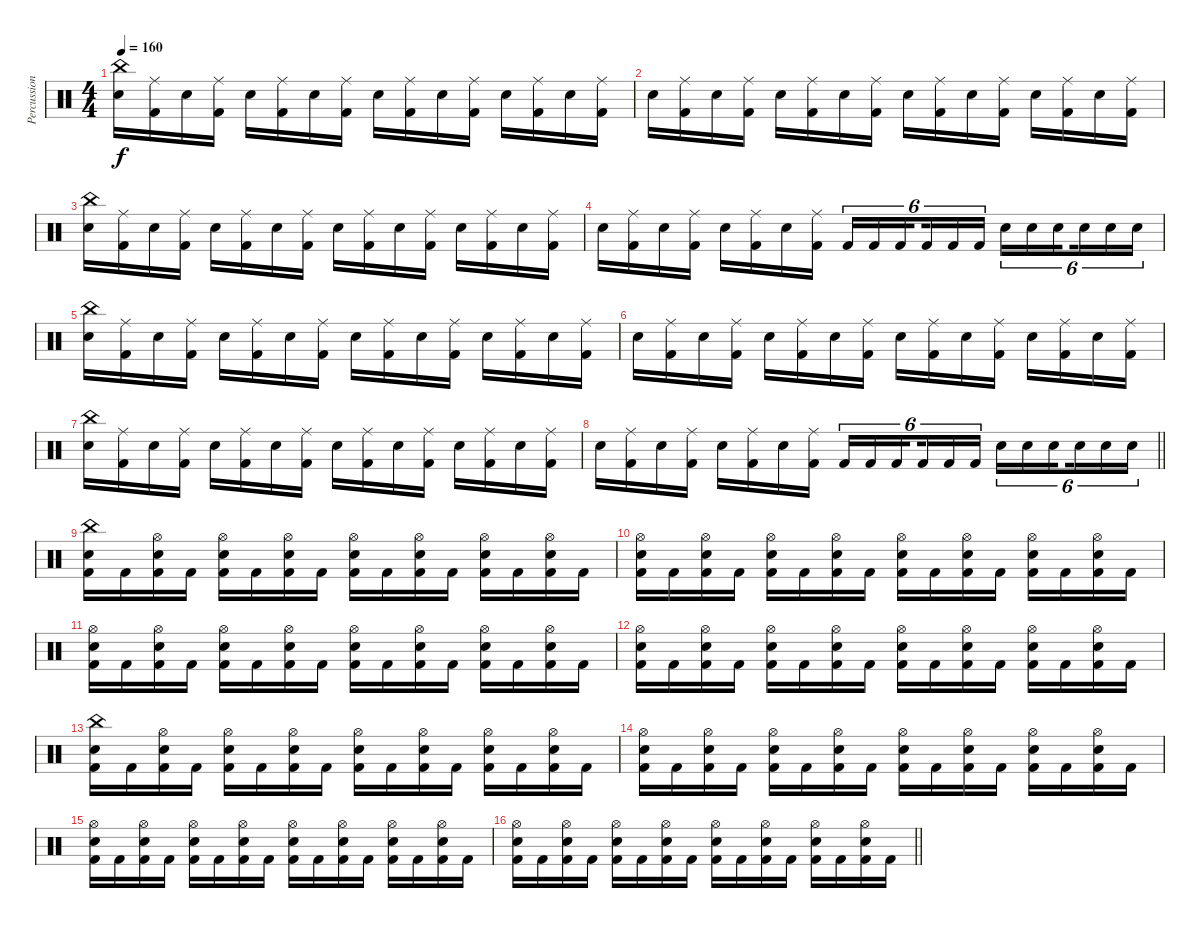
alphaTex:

\track ("Percussions" "Percussion") {instrument percussion}
\staff {score}
\articulation defaults
\ts (4 4)
\tempo 160
\clef neutral
\ks c
("China (hit)" "Electric Snare (hit)").16{dy f} ("Ride (middle)" "Kick (hit) 2").16 "Electric Snare (hit)".16 ("Ride (middle)" "Kick (hit) 2").16 "Electric Snare (hit)".16 ("Ride (middle)" "Kick (hit) 2").16 "Electric Snare (hit)".16 ("Ride (middle)" "Kick (hit) 2").16 "Electric Snare (hit)".16 ("Ride (middle)" "Kick (hit) 2").16 "Electric Snare (hit)".16 ("Ride (middle)" "Kick (hit) 2").16 "Electric Snare (hit)".16 ("Ride (middle)" "Kick (hit) 2").16 "Electric Snare (hit)".16 ("Ride (middle)" "Kick (hit) 2").16 |
"Electric Snare (hit)".16 ("Ride (middle)" "Kick (hit) 2").16 "Electric Snare (hit)".16 ("Ride (middle)" "Kick (hit) 2").16 "Electric Snare (hit)".16 ("Ride (middle)" "Kick (hit) 2").16 "Electric Snare (hit)".16 ("Ride (middle)" "Kick (hit) 2").16 "Electric Snare (hit)".16 ("Ride (middle)" "Kick (hit) 2").16 "Electric Snare (hit)".16 ("Ride (middle)" "Kick (hit) 2").16 "Electric Snare (hit)".16 ("Ride (middle)" "Kick (hit) 2").16 "Electric Snare (hit)".16 ("Ride (middle)" "Kick (hit) 2").16 |
("China (hit)" "Electric Snare (hit)").16 ("Ride (middle)" "Kick (hit) 2").16 "Electric Snare (hit)".16 ("Ride (middle)" "Kick (hit) 2").16 "Electric Snare (hit)".16 ("Ride (middle)" "Kick (hit) 2").16 "Electric Snare (hit)".16 ("Ride (middle)" "Kick (hit) 2").16 "Electric Snare (hit)".16 ("Ride (middle)" "Kick (hit) 2").16 "Electric Snare (hit)".16 ("Ride (middle)" "Kick (hit) 2").16 "Electric Snare (hit)".16 ("Ride (middle)" "Kick (hit) 2").16 "Electric Snare (hit)".16 ("Ride (middle)" "Kick (hit) 2").16 |
"Electric Snare (hit)".16 ("Ride (middle)" "Kick (hit) 2").16 "Electric Snare (hit)".16 ("Ride (middle)" "Kick (hit) 2").16 "Electric Snare (hit)".16 ("Ride (middle)" "Kick (hit) 2").16 "Electric Snare (hit)".16 ("Ride (middle)" "Kick (hit) 2").16 "Kick (hit) 2".16{tu (6 4)} "Kick (hit) 2".16{tu (6 4)} "Kick (hit) 2".16{tu (6 4) beam splitsecondary} "Kick (hit) 2".16{tu (6 4)} "Kick (hit) 2".16{tu (6 4)} "Kick (hit) 2".16{tu (6 4)} "Electric Snare (hit)".16{tu (6 4)} "Electric Snare (hit)".16{tu (6 4)} "Electric Snare (hit)".16{tu (6 4) beam splitsecondary} "Electric Snare (hit)".16{tu (6 4)} "Electric Snare (hit)".16{tu (6 4)} "Electric Snare (hit)".16{tu (6 4)} |
("China (hit)" "Electric Snare (hit)").16 ("Ride (middle)" "Kick (hit) 2").16 "Electric Snare (hit)".16 ("Ride (middle)" "Kick (hit) 2").16 "Electric Snare (hit)".16 ("Ride (middle)" "Kick (hit) 2").16 "Electric Snare (hit)".16 ("Ride (middle)" "Kick (hit) 2").16 "Electric Snare (hit)".16 ("Ride (middle)" "Kick (hit) 2").16 "Electric Snare (hit)".16 ("Ride (middle)" "Kick (hit) 2").16 "Electric Snare (hit)".16 ("Ride (middle)" "Kick (hit) 2").16 "Electric Snare (hit)".16 ("Ride (middle)" "Kick (hit) 2").16 |
"Electric Snare (hit)".16 ("Ride (middle)" "Kick (hit) 2").16 "Electric Snare (hit)".16 ("Ride (middle)" "Kick (hit) 2").16 "Electric Snare (hit)".16 ("Ride (middle)" "Kick (hit) 2").16 "Electric Snare (hit)".16 ("Ride (middle)" "Kick (hit) 2").16 "Electric Snare (hit)".16 ("Ride (middle)" "Kick (hit) 2").16 "Electric Snare (hit)".16 ("Ride (middle)" "Kick (hit) 2").16 "Electric Snare (hit)".16 ("Ride (middle)" "Kick (hit) 2").16 "Electric Snare (hit)".16 ("Ride (middle)" "Kick (hit) 2").16 |
("China (hit)" "Electric Snare (hit)").16 ("Ride (middle)" "Kick (hit) 2").16 "Electric Snare (hit)".16 ("Ride (middle)" "Kick (hit) 2").16 "Electric Snare (hit)".16 ("Ride (middle)" "Kick (hit) 2").16 "Electric Snare (hit)".16 ("Ride (middle)" "Kick (hit) 2").16 "Electric Snare (hit)".16 ("Ride (middle)" "Kick (hit) 2").16 "Electric Snare (hit)".16 ("Ride (middle)" "Kick (hit) 2").16 "Electric Snare (hit)".16 ("Ride (middle)" "Kick (hit) 2").16 "Electric Snare (hit)".16 ("Ride (middle)" "Kick (hit) 2").16 |
\barLineRight lightlight "Electric Snare (hit)".16
("Ride (middle)" "Kick (hit) 2").16 "Electric Snare (hit)".16 ("Ride (middle)" "Kick (hit) 2").16 "Electric Snare (hit)".16 ("Ride (middle)" "Kick (hit) 2").16 "Electric Snare (hit)".16 ("Ride (middle)" "Kick (hit) 2").16 "Kick (hit) 2".16{tu (6 4)} "Kick (hit) 2".16{tu (6 4)} "Kick (hit) 2".16{tu (6 4) beam splitsecondary} "Kick (hit) 2".16{tu (6 4)} "Kick (hit) 2".16{tu (6 4)} "Kick (hit) 2".16{tu (6 4)} "Electric Snare (hit)".16{tu (6 4)} "Electric Snare (hit)".16{tu (6 4)} "Electric Snare (hit)".16{tu (6 4) beam splitsecondary} "Electric Snare (hit)".16{tu (6 4)} "Electric Snare (hit)".16{tu (6 4)} "Electric Snare (hit)".16{tu (6 4)} |
("China (hit)" "Electric Snare (hit)" "Kick (hit) 2").16 "Kick (hit) 2".16 ("Hi-Hat (open)" "Electric Snare (hit)" "Kick (hit) 2").16 "Kick (hit) 2".16 ("Hi-Hat (open)" "Electric Snare (hit)" "Kick (hit) 2").16 "Kick (hit) 2".16 ("Hi-Hat (open)" "Electric Snare (hit)" "Kick (hit) 2").16 "Kick (hit) 2".16 ("Hi-Hat (open)" "Electric Snare (hit)" "Kick (hit) 2").16 "Kick (hit) 2".16 ("Hi-Hat (open)" "Electric Snare (hit)" "Kick (hit) 2").16 "Kick (hit) 2".16 ("Hi-Hat (open)" "Electric Snare (hit)" "Kick (hit) 2").16 "Kick (hit) 2".16 ("Hi-Hat (open)" "Electric Snare (hit)" "Kick (hit) 2").16 "Kick (hit) 2".16 |
("Hi-Hat (open)" "Electric Snare (hit)" "Kick (hit) 2").16 "Kick (hit) 2".16 ("Hi-Hat (open)" "Electric Snare (hit)" "Kick (hit) 2").16 "Kick (hit) 2".16 ("Hi-Hat (open)" "Electric Snare (hit)" "Kick (hit) 2").16 "Kick (hit) 2".16 ("Hi-Hat (open)" "Electric Snare (hit)" "Kick (hit) 2").16 "Kick (hit) 2".16 ("Hi-Hat (open)" "Electric Snare (hit)" "Kick (hit) 2").16 "Kick (hit) 2".16 ("Hi-Hat (open)" "Electric Snare (hit)" "Kick (hit) 2").16 "Kick (hit) 2".16 ("Hi-Hat (open)" "Electric Snare (hit)" "Kick (hit) 2").16 "Kick (hit) 2".16 ("Hi-Hat (open)" "Electric Snare (hit)" "Kick (hit) 2").16 "Kick (hit) 2".16 |
("Hi-Hat (open)" "Electric Snare (hit)" "Kick (hit) 2").16 "Kick (hit) 2".16 ("Hi-Hat (open)" "Electric Snare (hit)" "Kick (hit) 2").16 "Kick (hit) 2".16 ("Hi-Hat (open)" "Electric Snare (hit)" "Kick (hit) 2").16 "Kick (hit) 2".16 ("Hi-Hat (open)" "Electric Snare (hit)" "Kick (hit) 2").16 "Kick (hit) 2".16 ("Hi-Hat (open)" "Electric Snare (hit)" "Kick (hit) 2").16 "Kick (hit) 2".16 ("Hi-Hat (open)" "Electric Snare (hit)" "Kick (hit) 2").16 "Kick (hit) 2".16 ("Hi-Hat (open)" "Electric Snare (hit)" "Kick (hit) 2").16 "Kick (hit) 2".16 ("Hi-Hat (open)" "Electric Snare (hit)" "Kick (hit) 2").16 "Kick (hit) 2".16 |
("Hi-Hat (open)" "Electric Snare (hit)" "Kick (hit) 2").16 "Kick (hit) 2".16 ("Hi-Hat (open)" "Electric Snare (hit)" "Kick (hit) 2").16 "Kick (hit) 2".16 ("Hi-Hat (open)" "Electric Snare (hit)" "Kick (hit) 2").16 "Kick (hit) 2".16 ("Hi-Hat (open)" "Electric Snare (hit)" "Kick (hit) 2").16 "Kick (hit) 2".16 ("Hi-Hat (open)" "Electric Snare (hit)" "Kick (hit) 2").16 "Kick (hit) 2".16 ("Hi-Hat (open)" "Electric Snare (hit)" "Kick (hit) 2").16 "Kick (hit) 2".16 ("Hi-Hat (open)" "Electric Snare (hit)" "Kick (hit) 2").16 "Kick (hit) 2".16 ("Hi-Hat (open)" "Electric Snare (hit)" "Kick (hit) 2").16 "Kick (hit) 2".16 |
("China (hit)" "Electric Snare (hit)" "Kick (hit) 2").16 "Kick (hit) 2".16 ("Hi-Hat (open)" "Electric Snare (hit)" "Kick (hit) 2").16 "Kick (hit) 2".16 ("Hi-Hat (open)" "Electric Snare (hit)" "Kick (hit) 2").16 "Kick (hit) 2".16 ("Hi-Hat (open)" "Electric Snare (hit)" "Kick (hit) 2").16 "Kick (hit) 2".16 ("Hi-Hat (open)" "Electric Snare (hit)" "Kick (hit) 2").16 "Kick (hit) 2".16 ("Hi-Hat (open)" "Electric Snare (hit)" "Kick (hit) 2").16 "Kick (hit) 2".16 ("Hi-Hat (open)" "Electric Snare (hit)" "Kick (hit) 2").16 "Kick (hit) 2".16 ("Hi-Hat (open)" "Electric Snare (hit)" "Kick (hit) 2").16 "Kick (hit) 2".16 |
("Hi-Hat (open)" "Electric Snare (hit)" "Kick (hit) 2").16 "Kick (hit) 2".16 ("Hi-Hat (open)" "Electric Snare (hit)" "Kick (hit) 2").16 "Kick (hit) 2".16 ("Hi-Hat (open)" "Electric Snare (hit)" "Kick (hit) 2").16 "Kick (hit) 2".16 ("Hi-Hat (open)" "Electric Snare (hit)" "Kick (hit) 2").16 "Kick (hit) 2".16 ("Hi-Hat (open)" "Electric Snare (hit)" "Kick (hit) 2").16 "Kick (hit) 2".16 ("Hi-Hat (open)" "Electric Snare (hit)" "Kick (hit) 2").16 "Kick (hit) 2".16 ("Hi-Hat (open)" "Electric Snare (hit)" "Kick (hit) 2").16 "Kick (hit) 2".16 ("Hi-Hat (open)" "Electric Snare (hit)" "Kick (hit) 2").16 "Kick (hit) 2".16 |
("Hi-Hat (open)" "Electric Snare (hit)" "Kick (hit) 2").16 "Kick (hit) 2".16 ("Hi-Hat (open)" "Electric Snare (hit)" "Kick (hit) 2").16 "Kick (hit) 2".16 ("Hi-Hat (open)" "Electric Snare (hit)" "Kick (hit) 2").16 "Kick (hit) 2".16 ("Hi-Hat (open)" "Electric Snare (hit)" "Kick (hit) 2").16 "Kick (hit) 2".16 ("Hi-Hat (open)" "Electric Snare (hit)" "Kick (hit) 2").16 "Kick (hit) 2".16 ("Hi-Hat (open)" "Electric Snare (hit)" "Kick (hit) 2").16 "Kick (hit) 2".16 ("Hi-Hat (open)" "Electric Snare (hit)" "Kick (hit) 2").16 "Kick (hit) 2".16 ("Hi-Hat (open)" "Electric Snare (hit)" "Kick (hit) 2").16 "Kick (hit) 2".16 |
\barLineRight lightlight
("Hi-Hat (open)" "Electric Snare (hit)" "Kick (hit) 2").16 "Kick (hit) 2".16 ("Hi-Hat (open)" "Electric Snare (hit)" "Kick (hit) 2").16 "Kick (hit) 2".16 ("Hi-Hat (open)" "Electric Snare (hit)" "Kick (hit) 2").16 "Kick (hit) 2".16 ("Hi-Hat (open)" "Electric Snare (hit)" "Kick (hit) 2").16 "Kick (hit) 2".16 ("Hi-Hat (open)" "Electric Snare (hit)" "Kick (hit) 2").16 "Kick (hit) 2".16 ("Hi-Hat (open)" "Electric Snare (hit)" "Kick (hit) 2").16 "Kick (hit) 2".16 ("Hi-Hat (open)" "Electric Snare (hit)" "Kick (hit) 2").16 "Kick (hit) 2".16 ("Hi-Hat (open)" "Electric Snare (hit)" "Kick (hit) 2").16 "Kick (hit) 2".16
